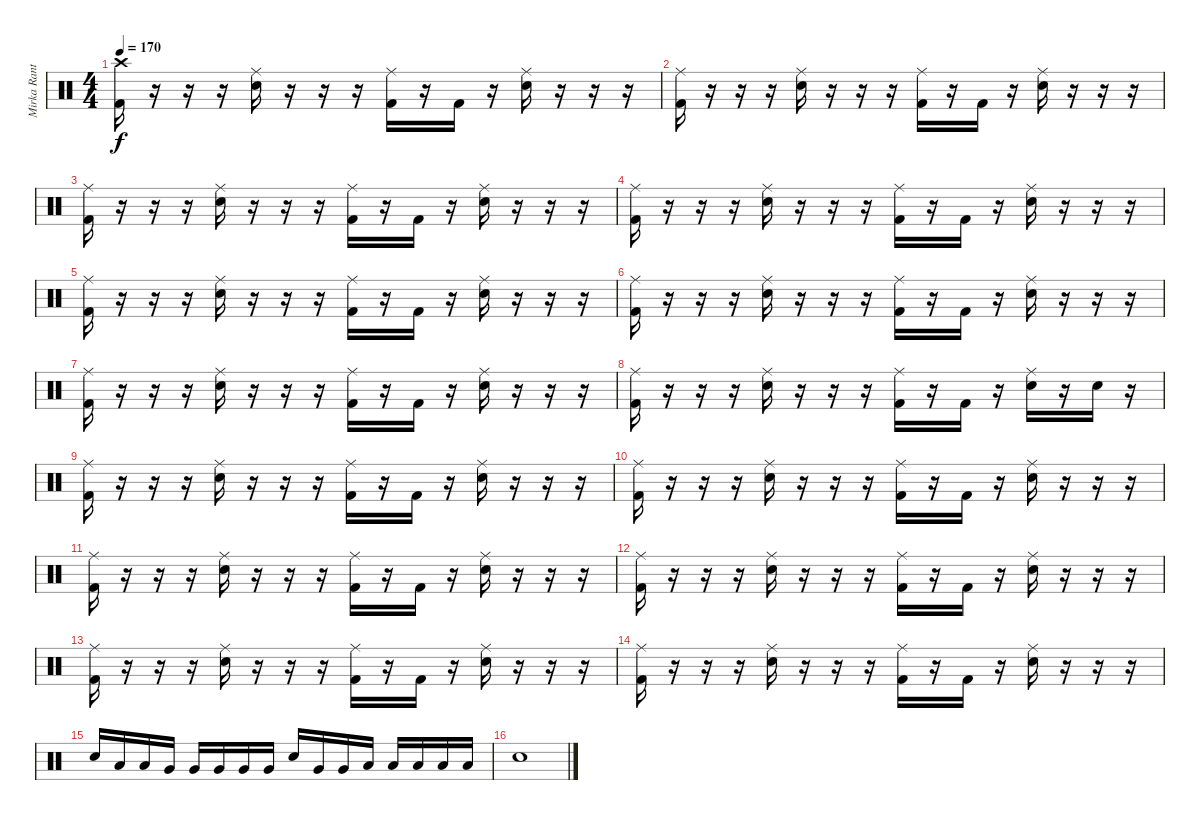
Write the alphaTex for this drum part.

\track ("Mirka Rantanen" "Mirka Rant") {instrument percussion}
\staff {score}
\articulation defaults
\ts (4 4)
\tempo 170
\clef neutral
\ks c
("Crash high (hit)" "Kick (hit) 2").16{dy f} r.16 r.16 r.16 ("Ride (middle)" "Snare (hit) 2").16 r.16 r.16 r.16 ("Ride (middle)" "Kick (hit) 2").16 r.16 "Kick (hit) 2".16 r.16 ("Ride (middle)" "Snare (hit) 2").16 r.16 r.16 r.16 |
("Ride (middle)" "Kick (hit) 2").16 r.16 r.16 r.16 ("Ride (middle)" "Snare (hit) 2").16 r.16 r.16 r.16 ("Ride (middle)" "Kick (hit) 2").16 r.16 "Kick (hit) 2".16 r.16 ("Ride (middle)" "Snare (hit) 2").16 r.16 r.16 r.16 |
("Ride (middle)" "Kick (hit) 2").16 r.16 r.16 r.16 ("Ride (middle)" "Snare (hit) 2").16 r.16 r.16 r.16 ("Ride (middle)" "Kick (hit) 2").16 r.16 "Kick (hit) 2".16 r.16 ("Ride (middle)" "Snare (hit) 2").16 r.16 r.16 r.16 |
("Ride (middle)" "Kick (hit) 2").16 r.16 r.16 r.16 ("Ride (middle)" "Snare (hit) 2").16 r.16 r.16 r.16 ("Ride (middle)" "Kick (hit) 2").16 r.16 "Kick (hit) 2".16 r.16 ("Ride (middle)" "Snare (hit) 2").16 r.16 r.16 r.16 |
("Ride (middle)" "Kick (hit) 2").16 r.16 r.16 r.16 ("Ride (middle)" "Snare (hit) 2").16 r.16 r.16 r.16 ("Ride (middle)" "Kick (hit) 2").16 r.16 "Kick (hit) 2".16 r.16 ("Ride (middle)" "Snare (hit) 2").16 r.16 r.16 r.16 |
("Ride (middle)" "Kick (hit) 2").16 r.16 r.16 r.16 ("Ride (middle)" "Snare (hit) 2").16 r.16 r.16 r.16 ("Ride (middle)" "Kick (hit) 2").16 r.16 "Kick (hit) 2".16 r.16 ("Ride (middle)" "Snare (hit) 2").16 r.16 r.16 r.16 |
("Ride (middle)" "Kick (hit) 2").16 r.16 r.16 r.16 ("Ride (middle)" "Snare (hit) 2").16 r.16 r.16 r.16 ("Ride (middle)" "Kick (hit) 2").16 r.16 "Kick (hit) 2".16 r.16 ("Ride (middle)" "Snare (hit) 2").16 r.16 r.16 r.16 |
("Ride (middle)" "Kick (hit) 2").16 r.16 r.16 r.16 ("Ride (middle)" "Snare (hit) 2").16 r.16 r.16 r.16 ("Ride (middle)" "Kick (hit) 2").16 r.16 "Kick (hit) 2".16 r.16 ("Ride (middle)" "Snare (hit) 2").16 r.16 "Snare (hit) 2".16 r.16 |
("Ride (middle)" "Kick (hit) 2").16 r.16 r.16 r.16 ("Ride (middle)" "Snare (hit) 2").16 r.16 r.16 r.16 ("Ride (middle)" "Kick (hit) 2").16 r.16 "Kick (hit) 2".16 r.16 ("Ride (middle)" "Snare (hit) 2").16 r.16 r.16 r.16 |
("Ride (middle)" "Kick (hit) 2").16 r.16 r.16 r.16 ("Ride (middle)" "Snare (hit) 2").16 r.16 r.16 r.16 ("Ride (middle)" "Kick (hit) 2").16 r.16 "Kick (hit) 2".16 r.16 ("Ride (middle)" "Snare (hit) 2").16 r.16 r.16 r.16 |
("Ride (middle)" "Kick (hit) 2").16 r.16 r.16 r.16 ("Ride (middle)" "Snare (hit) 2").16 r.16 r.16 r.16 ("Ride (middle)" "Kick (hit) 2").16 r.16 "Kick (hit) 2".16 r.16 ("Ride (middle)" "Snare (hit) 2").16 r.16 r.16 r.16 |
("Ride (middle)" "Kick (hit) 2").16 r.16 r.16 r.16 ("Ride (middle)" "Snare (hit) 2").16 r.16 r.16 r.16 ("Ride (middle)" "Kick (hit) 2").16 r.16 "Kick (hit) 2".16 r.16 ("Ride (middle)" "Snare (hit) 2").16 r.16 r.16 r.16 |
("Ride (middle)" "Kick (hit) 2").16 r.16 r.16 r.16 ("Ride (middle)" "Snare (hit) 2").16 r.16 r.16 r.16 ("Ride (middle)" "Kick (hit) 2").16 r.16 "Kick (hit) 2".16 r.16 ("Ride (middle)" "Snare (hit) 2").16 r.16 r.16 r.16 |
("Ride (middle)" "Kick (hit) 2").16 r.16 r.16 r.16 ("Ride (middle)" "Snare (hit) 2").16 r.16 r.16 r.16 ("Ride (middle)" "Kick (hit) 2").16 r.16 "Kick (hit) 2".16 r.16 ("Ride (middle)" "Snare (hit) 2").16 r.16 r.16 r.16 |
"Snare (hit) 2".16 "Low Tom (hit)".16 "Low Tom (hit)".16 "Very Low Tom (hit)".16 "Very Low Tom (hit)".16 "Very Low Tom (hit)".16 "Very Low Tom (hit)".16 "Very Low Tom (hit)".16 "Snare (hit) 2".16 "Very Low Tom (hit)".16 "Very Low Tom (hit)".16 "Low Floor Tom (hit)".16 "Low Floor Tom (hit)".16 "Low Floor Tom (hit)".16 "Low Floor Tom (hit)".16 "Low Floor Tom (hit)".16 |
"Snare (hit) 2".1
